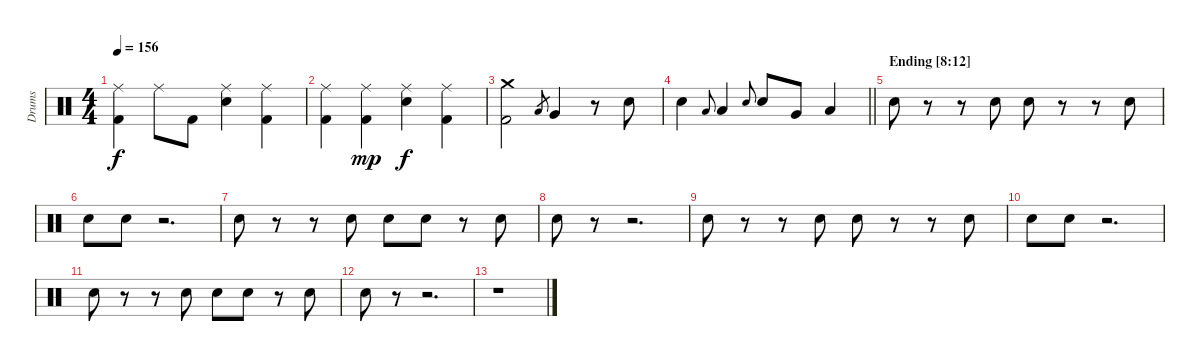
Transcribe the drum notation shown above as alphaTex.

\track ("Drums" "Drums") {instrument percussion}
\staff {score}
\articulation defaults
\ts (4 4)
\tempo 156
\clef neutral
\ks aminor
("Ride (middle)" "Kick (hit) 2").4{dy f} "Ride (middle)".8 "Kick (hit) 2".8 ("Ride (middle)" "Snare (hit) 2").4 ("Ride (middle)" "Kick (hit) 2").4 |
("Ride (middle)" "Kick (hit) 2").4 ("Ride (middle)" "Kick (hit) 2").4{dy mp} ("Ride (middle)" "Snare (hit) 2").4{dy f} ("Ride (middle)" "Kick (hit) 2").4 |
("Crash medium (hit)" "Kick (hit) 2").2 "Low Floor Tom (hit)".8{gr} "Very Low Tom (hit)".4 r.8 "Snare (hit) 2".8 |
\barLineRight lightlight "Snare (hit) 2".4 "Low Floor Tom (hit)".8{gr onbeat} "Low Floor Tom (hit)".4 "Snare (hit) 2".8{gr onbeat} "Snare (hit) 2".8 "Very Low Tom (hit)".8 "Low Floor Tom (hit)".4
|
\section ("" "Ending [8:12]")
"Snare (hit) 2".8 r.8 r.8 "Snare (hit) 2".8 "Snare (hit) 2".8 r.8 r.8 "Snare (hit) 2".8 |
"Snare (hit) 2".8 "Snare (hit) 2".8 r.2{d} |
"Snare (hit) 2".8 r.8 r.8 "Snare (hit) 2".8 "Snare (hit) 2".8 "Snare (hit) 2".8 r.8 "Snare (hit) 2".8 |
"Snare (hit) 2".8 r.8 r.2{d} |
"Snare (hit) 2".8 r.8 r.8 "Snare (hit) 2".8 "Snare (hit) 2".8 r.8 r.8 "Snare (hit) 2".8 |
"Snare (hit) 2".8 "Snare (hit) 2".8 r.2{d} |
"Snare (hit) 2".8 r.8 r.8 "Snare (hit) 2".8 "Snare (hit) 2".8 "Snare (hit) 2".8 r.8 "Snare (hit) 2".8 |
"Snare (hit) 2".8 r.8 r.2{d} |
r.1
